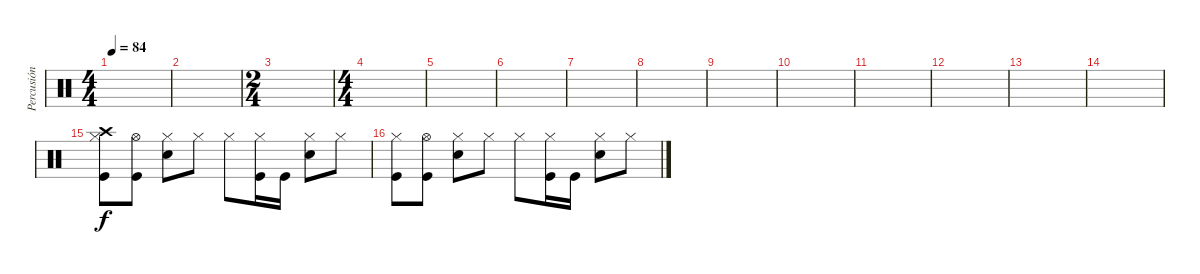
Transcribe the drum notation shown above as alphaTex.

\track ("Percusión" "Percusión") {instrument percussion}
\staff {score}
\articulation defaults
\ts (4 4)
\tempo 84
\clef neutral
\ks c
|
|
\ts (2 4)
|
\ts (4 4)
|
|
|
|
|
|
|
|
|
|
|
("Kick (hit)" "Hi-Hat (closed)" "Crash high (hit)").8 ("Kick (hit)" "Hi-Hat (open)").8 ("Snare (hit) 2" "Hi-Hat (closed)").8 "Hi-Hat (closed)".8 "Hi-Hat (closed)".8 ("Kick (hit)" "Hi-Hat (closed)").16 "Kick (hit)".16 ("Snare (hit) 2" "Hi-Hat (closed)").8 "Hi-Hat (closed)".8 |
("Kick (hit)" "Hi-Hat (closed)").8 ("Kick (hit)" "Hi-Hat (open)").8 ("Snare (hit) 2" "Hi-Hat (closed)").8 "Hi-Hat (closed)".8 "Hi-Hat (closed)".8 ("Kick (hit)" "Hi-Hat (closed)").16 "Kick (hit)".16 ("Snare (hit) 2" "Hi-Hat (closed)").8 "Hi-Hat (closed)".8
